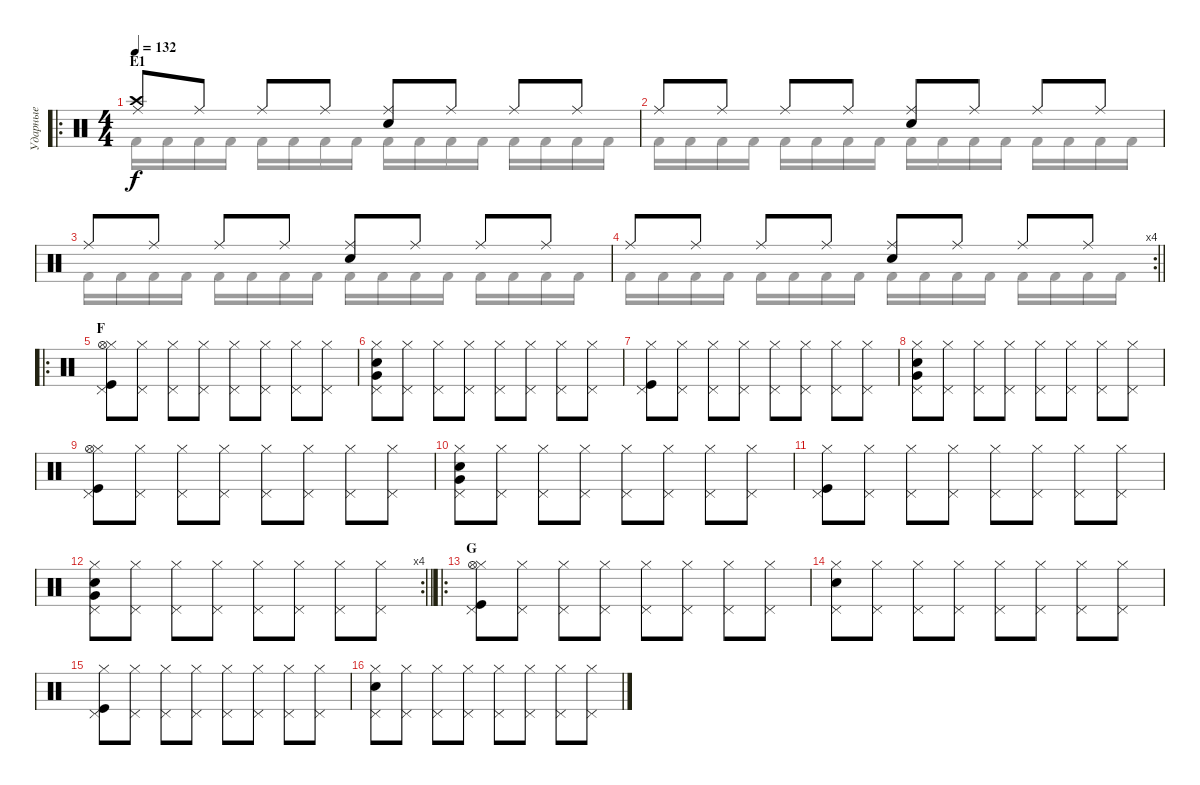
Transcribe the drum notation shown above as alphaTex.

\track ("Ударные" "Ударные") {instrument percussion}
\staff {score}
\articulation defaults
\voice
\ro
\ts (4 4)
\section ("" "E1")
\tempo 132
\clef neutral
\ks c
("Ride (middle)" "Crash high (hit)").8{dy f} "Ride (middle)".8 "Ride (middle)".8 "Ride (middle)".8 ("Ride (middle)" "Electric Snare (hit)").8 "Ride (middle)".8 "Ride (middle)".8 "Ride (middle)".8 |
"Ride (middle)".8 "Ride (middle)".8 "Ride (middle)".8 "Ride (middle)".8 ("Ride (middle)" "Electric Snare (hit)").8 "Ride (middle)".8 "Ride (middle)".8 "Ride (middle)".8 |
"Ride (middle)".8 "Ride (middle)".8 "Ride (middle)".8 "Ride (middle)".8 ("Ride (middle)" "Electric Snare (hit)").8 "Ride (middle)".8 "Ride (middle)".8 "Ride (middle)".8 |
\rc 4
\barLineRight lightlight "Ride (middle)".8 "Ride (middle)".8 "Ride (middle)".8 "Ride (middle)".8
("Ride (middle)" "Electric Snare (hit)").8 "Ride (middle)".8 "Ride (middle)".8 "Ride (middle)".8 |
\ro
\section ("" "F")
("Hi-Hat (closed)" "Pedal Hi-Hat (hit)" "Hi-Hat (open)" "Kick (hit)").8 ("Hi-Hat (closed)" "Pedal Hi-Hat (hit)").8 ("Hi-Hat (closed)" "Pedal Hi-Hat (hit)").8 ("Hi-Hat (closed)" "Pedal Hi-Hat (hit)").8 ("Hi-Hat (closed)" "Pedal Hi-Hat (hit)").8 ("Hi-Hat (closed)" "Pedal Hi-Hat (hit)").8 ("Hi-Hat (closed)" "Pedal Hi-Hat (hit)").8 ("Hi-Hat (closed)" "Pedal Hi-Hat (hit)").8 |
("Hi-Hat (closed)" "Pedal Hi-Hat (hit)" "Electric Snare (hit)" "Very Low Tom (hit)").8 ("Hi-Hat (closed)" "Pedal Hi-Hat (hit)").8 ("Hi-Hat (closed)" "Pedal Hi-Hat (hit)").8 ("Hi-Hat (closed)" "Pedal Hi-Hat (hit)").8 ("Hi-Hat (closed)" "Pedal Hi-Hat (hit)").8 ("Hi-Hat (closed)" "Pedal Hi-Hat (hit)").8 ("Hi-Hat (closed)" "Pedal Hi-Hat (hit)").8 ("Hi-Hat (closed)" "Pedal Hi-Hat (hit)").8 |
("Hi-Hat (closed)" "Pedal Hi-Hat (hit)" "Kick (hit)").8 ("Hi-Hat (closed)" "Pedal Hi-Hat (hit)").8 ("Hi-Hat (closed)" "Pedal Hi-Hat (hit)").8 ("Hi-Hat (closed)" "Pedal Hi-Hat (hit)").8 ("Hi-Hat (closed)" "Pedal Hi-Hat (hit)").8 ("Hi-Hat (closed)" "Pedal Hi-Hat (hit)").8 ("Hi-Hat (closed)" "Pedal Hi-Hat (hit)").8 ("Hi-Hat (closed)" "Pedal Hi-Hat (hit)").8 |
("Hi-Hat (closed)" "Pedal Hi-Hat (hit)" "Electric Snare (hit)" "Very Low Tom (hit)").8 ("Hi-Hat (closed)" "Pedal Hi-Hat (hit)").8 ("Hi-Hat (closed)" "Pedal Hi-Hat (hit)").8 ("Hi-Hat (closed)" "Pedal Hi-Hat (hit)").8 ("Hi-Hat (closed)" "Pedal Hi-Hat (hit)").8 ("Hi-Hat (closed)" "Pedal Hi-Hat (hit)").8 ("Hi-Hat (closed)" "Pedal Hi-Hat (hit)").8 ("Hi-Hat (closed)" "Pedal Hi-Hat (hit)").8 |
("Hi-Hat (closed)" "Pedal Hi-Hat (hit)" "Hi-Hat (open)" "Kick (hit)").8 ("Hi-Hat (closed)" "Pedal Hi-Hat (hit)").8 ("Hi-Hat (closed)" "Pedal Hi-Hat (hit)").8 ("Hi-Hat (closed)" "Pedal Hi-Hat (hit)").8 ("Hi-Hat (closed)" "Pedal Hi-Hat (hit)").8 ("Hi-Hat (closed)" "Pedal Hi-Hat (hit)").8 ("Hi-Hat (closed)" "Pedal Hi-Hat (hit)").8 ("Hi-Hat (closed)" "Pedal Hi-Hat (hit)").8 |
("Hi-Hat (closed)" "Pedal Hi-Hat (hit)" "Electric Snare (hit)" "Very Low Tom (hit)").8 ("Hi-Hat (closed)" "Pedal Hi-Hat (hit)").8 ("Hi-Hat (closed)" "Pedal Hi-Hat (hit)").8 ("Hi-Hat (closed)" "Pedal Hi-Hat (hit)").8 ("Hi-Hat (closed)" "Pedal Hi-Hat (hit)").8 ("Hi-Hat (closed)" "Pedal Hi-Hat (hit)").8 ("Hi-Hat (closed)" "Pedal Hi-Hat (hit)").8 ("Hi-Hat (closed)" "Pedal Hi-Hat (hit)").8 |
("Hi-Hat (closed)" "Pedal Hi-Hat (hit)" "Kick (hit)").8 ("Hi-Hat (closed)" "Pedal Hi-Hat (hit)").8 ("Hi-Hat (closed)" "Pedal Hi-Hat (hit)").8 ("Hi-Hat (closed)" "Pedal Hi-Hat (hit)").8 ("Hi-Hat (closed)" "Pedal Hi-Hat (hit)").8 ("Hi-Hat (closed)" "Pedal Hi-Hat (hit)").8 ("Hi-Hat (closed)" "Pedal Hi-Hat (hit)").8 ("Hi-Hat (closed)" "Pedal Hi-Hat (hit)").8 |
\rc 4
\barLineRight lightlight
("Hi-Hat (closed)" "Pedal Hi-Hat (hit)" "Electric Snare (hit)" "Very Low Tom (hit)").8 ("Hi-Hat (closed)" "Pedal Hi-Hat (hit)").8 ("Hi-Hat (closed)" "Pedal Hi-Hat (hit)").8 ("Hi-Hat (closed)" "Pedal Hi-Hat (hit)").8 ("Hi-Hat (closed)" "Pedal Hi-Hat (hit)").8 ("Hi-Hat (closed)" "Pedal Hi-Hat (hit)").8 ("Hi-Hat (closed)" "Pedal Hi-Hat (hit)").8 ("Hi-Hat (closed)" "Pedal Hi-Hat (hit)").8 |
\ro
\section ("" "G")
("Hi-Hat (closed)" "Pedal Hi-Hat (hit)" "Hi-Hat (open)" "Kick (hit)").8 ("Hi-Hat (closed)" "Pedal Hi-Hat (hit)").8 ("Hi-Hat (closed)" "Pedal Hi-Hat (hit)").8 ("Hi-Hat (closed)" "Pedal Hi-Hat (hit)").8 ("Hi-Hat (closed)" "Pedal Hi-Hat (hit)").8 ("Hi-Hat (closed)" "Pedal Hi-Hat (hit)").8 ("Hi-Hat (closed)" "Pedal Hi-Hat (hit)").8 ("Hi-Hat (closed)" "Pedal Hi-Hat (hit)").8 |
("Hi-Hat (closed)" "Pedal Hi-Hat (hit)" "Electric Snare (hit)").8 ("Hi-Hat (closed)" "Pedal Hi-Hat (hit)").8 ("Hi-Hat (closed)" "Pedal Hi-Hat (hit)").8 ("Hi-Hat (closed)" "Pedal Hi-Hat (hit)").8 ("Hi-Hat (closed)" "Pedal Hi-Hat (hit)").8 ("Hi-Hat (closed)" "Pedal Hi-Hat (hit)").8 ("Hi-Hat (closed)" "Pedal Hi-Hat (hit)").8 ("Hi-Hat (closed)" "Pedal Hi-Hat (hit)").8 |
("Hi-Hat (closed)" "Pedal Hi-Hat (hit)" "Kick (hit)").8 ("Hi-Hat (closed)" "Pedal Hi-Hat (hit)").8 ("Hi-Hat (closed)" "Pedal Hi-Hat (hit)").8 ("Hi-Hat (closed)" "Pedal Hi-Hat (hit)").8 ("Hi-Hat (closed)" "Pedal Hi-Hat (hit)").8 ("Hi-Hat (closed)" "Pedal Hi-Hat (hit)").8 ("Hi-Hat (closed)" "Pedal Hi-Hat (hit)").8 ("Hi-Hat (closed)" "Pedal Hi-Hat (hit)").8 |
("Hi-Hat (closed)" "Pedal Hi-Hat (hit)" "Electric Snare (hit)").8 ("Hi-Hat (closed)" "Pedal Hi-Hat (hit)").8 ("Hi-Hat (closed)" "Pedal Hi-Hat (hit)").8 ("Hi-Hat (closed)" "Pedal Hi-Hat (hit)").8 ("Hi-Hat (closed)" "Pedal Hi-Hat (hit)").8 ("Hi-Hat (closed)" "Pedal Hi-Hat (hit)").8 ("Hi-Hat (closed)" "Pedal Hi-Hat (hit)").8 ("Hi-Hat (closed)" "Pedal Hi-Hat (hit)").8
\voice
\clef neutral
\ottava regular
\simile none
\ks c "Kick (hit) 2".16{dy f} "Kick (hit) 2".16 "Kick (hit) 2".16 "Kick (hit) 2".16 "Kick (hit) 2".16 "Kick (hit) 2".16 "Kick (hit) 2".16 "Kick (hit) 2".16 "Kick (hit) 2".16 "Kick (hit) 2".16 "Kick (hit) 2".16 "Kick (hit) 2".16 "Kick (hit) 2".16 "Kick (hit) 2".16 "Kick (hit) 2".16 "Kick (hit) 2".16
|
"Kick (hit) 2".16 "Kick (hit) 2".16 "Kick (hit) 2".16 "Kick (hit) 2".16 "Kick (hit) 2".16 "Kick (hit) 2".16 "Kick (hit) 2".16 "Kick (hit) 2".16 "Kick (hit) 2".16 "Kick (hit) 2".16 "Kick (hit) 2".16 "Kick (hit) 2".16 "Kick (hit) 2".16 "Kick (hit) 2".16 "Kick (hit) 2".16 "Kick (hit) 2".16 |
"Kick (hit) 2".16 "Kick (hit) 2".16 "Kick (hit) 2".16 "Kick (hit) 2".16 "Kick (hit) 2".16 "Kick (hit) 2".16 "Kick (hit) 2".16 "Kick (hit) 2".16 "Kick (hit) 2".16 "Kick (hit) 2".16 "Kick (hit) 2".16 "Kick (hit) 2".16 "Kick (hit) 2".16 "Kick (hit) 2".16 "Kick (hit) 2".16 "Kick (hit) 2".16 |
\barLineRight lightlight "Kick (hit) 2".16 "Kick (hit) 2".16 "Kick (hit) 2".16 "Kick (hit) 2".16 "Kick (hit) 2".16 "Kick (hit) 2".16 "Kick (hit) 2".16 "Kick (hit) 2".16 "Kick (hit) 2".16 "Kick (hit) 2".16 "Kick (hit) 2".16 "Kick (hit) 2".16 "Kick (hit) 2".16 "Kick (hit) 2".16 "Kick (hit) 2".16 "Kick (hit) 2".16
|
|
|
|
|
|
|
|
\barLineRight lightlight
|
|
|
|
